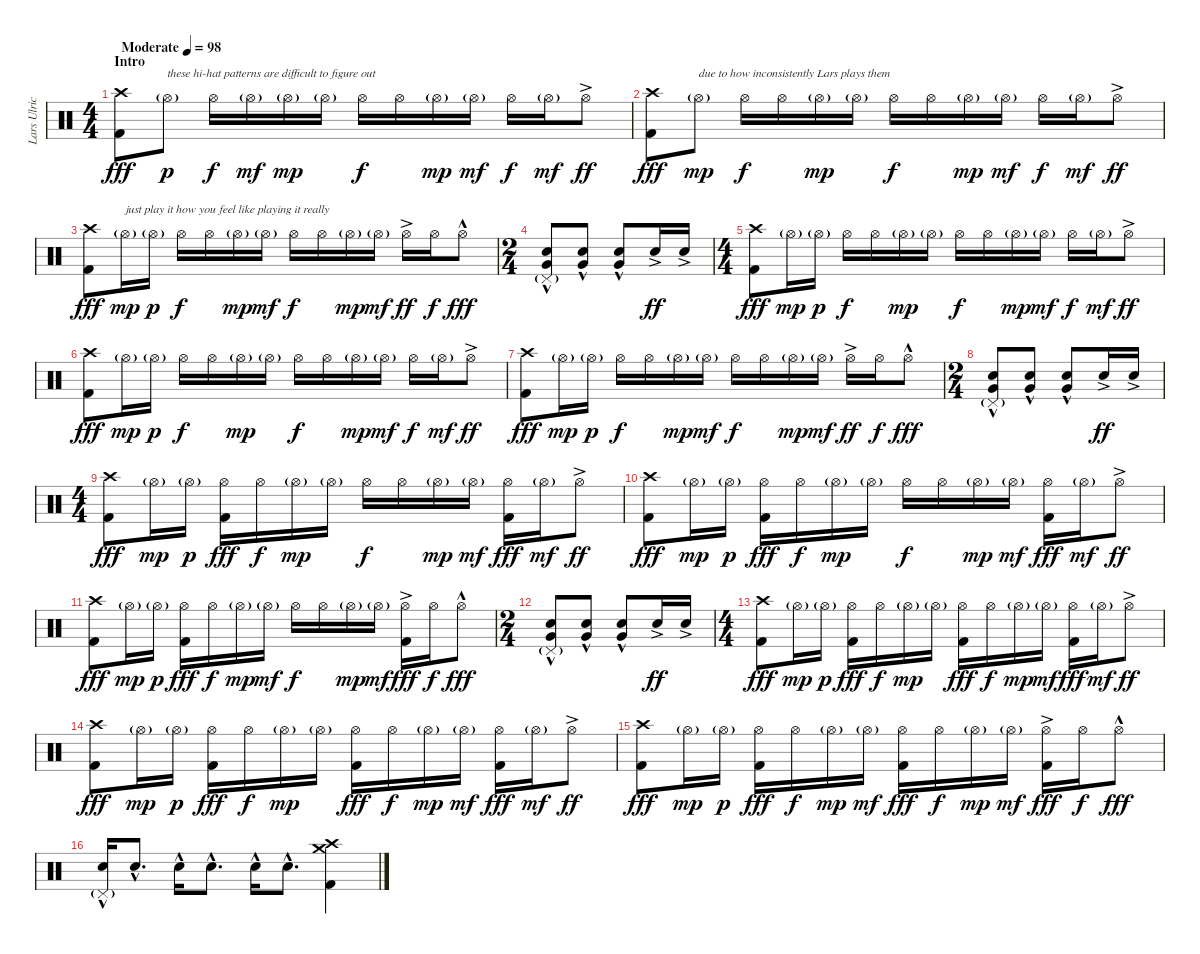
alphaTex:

\track ("Lars Ulrich (Drums)" "Lars Ulric") {instrument percussion}
\staff {score}
\articulation defaults
\ts (4 4)
\section ("" "Intro")
\tempo (98 "Moderate")
\clef neutral
\ks c
("Crash high (hit)" "Kick (hit) 2").8{dy fff} "Hi-Hat (open)"{g}.8{txt "these hi-hat patterns are difficult to figure out" dy p} "Hi-Hat (open)".16{dy f} "Hi-Hat (open)"{g}.16{dy mf} "Hi-Hat (open)"{g}.16{dy mp} "Hi-Hat (open)"{g}.16 "Hi-Hat (open)".16{dy f} "Hi-Hat (open)".16 "Hi-Hat (open)"{g}.16{dy mp} "Hi-Hat (open)"{g}.16{dy mf} "Hi-Hat (open)".16{dy f} "Hi-Hat (open)"{g}.16{dy mf} "Hi-Hat (open)"{ac}.8{dy ff} |
("Crash high (hit)" "Kick (hit) 2").8{dy fff} "Hi-Hat (open)"{g}.8{txt "due to how inconsistently Lars plays them" dy mp} "Hi-Hat (open)".16{dy f} "Hi-Hat (open)".16 "Hi-Hat (open)"{g}.16{dy mp} "Hi-Hat (open)"{g}.16 "Hi-Hat (open)".16{dy f} "Hi-Hat (open)".16 "Hi-Hat (open)"{g}.16{dy mp} "Hi-Hat (open)"{g}.16{dy mf} "Hi-Hat (open)".16{dy f} "Hi-Hat (open)"{g}.16{dy mf} "Hi-Hat (open)"{ac}.8{dy ff} |
("Crash high (hit)" "Kick (hit) 2").8{dy fff} "Hi-Hat (open)"{g}.16{txt "just play it how you feel like playing it really" dy mp} "Hi-Hat (open)"{g}.16{dy p} "Hi-Hat (open)".16{dy f} "Hi-Hat (open)".16 "Hi-Hat (open)"{g}.16{dy mp} "Hi-Hat (open)"{g}.16{dy mf} "Hi-Hat (open)".16{dy f} "Hi-Hat (open)".16 "Hi-Hat (open)"{g}.16{dy mp} "Hi-Hat (open)"{g}.16{dy mf} "Hi-Hat (open)"{ac}.16{dy ff} "Hi-Hat (open)".16{dy f} "Hi-Hat (open)"{hac}.8{dy fff} |
\ts (2 4)
("Pedal Hi-Hat (hit)"{g} "Electric Snare (hit)"{hac} "Very Low Tom (hit)"{hac}).8 ("Electric Snare (hit)"{hac} "Very Low Tom (hit)"{hac}).8 ("Electric Snare (hit)"{hac} "Very Low Tom (hit)"{hac}).8 "Electric Snare (hit)"{ac}.16{dy ff} "Electric Snare (hit)"{ac}.16 |
\ts (4 4)
("Crash high (hit)" "Kick (hit) 2").8{dy fff} "Hi-Hat (open)"{g}.16{dy mp} "Hi-Hat (open)"{g}.16{dy p} "Hi-Hat (open)".16{dy f} "Hi-Hat (open)".16 "Hi-Hat (open)"{g}.16{dy mp} "Hi-Hat (open)"{g}.16 "Hi-Hat (open)".16{dy f} "Hi-Hat (open)".16 "Hi-Hat (open)"{g}.16{dy mp} "Hi-Hat (open)"{g}.16{dy mf} "Hi-Hat (open)".16{dy f} "Hi-Hat (open)"{g}.16{dy mf} "Hi-Hat (open)"{ac}.8{dy ff} |
("Crash high (hit)" "Kick (hit) 2").8{dy fff} "Hi-Hat (open)"{g}.16{dy mp} "Hi-Hat (open)"{g}.16{dy p} "Hi-Hat (open)".16{dy f} "Hi-Hat (open)".16 "Hi-Hat (open)"{g}.16{dy mp} "Hi-Hat (open)"{g}.16 "Hi-Hat (open)".16{dy f} "Hi-Hat (open)".16 "Hi-Hat (open)"{g}.16{dy mp} "Hi-Hat (open)"{g}.16{dy mf} "Hi-Hat (open)".16{dy f} "Hi-Hat (open)"{g}.16{dy mf} "Hi-Hat (open)"{ac}.8{dy ff} |
("Crash high (hit)" "Kick (hit) 2").8{dy fff} "Hi-Hat (open)"{g}.16{dy mp} "Hi-Hat (open)"{g}.16{dy p} "Hi-Hat (open)".16{dy f} "Hi-Hat (open)".16 "Hi-Hat (open)"{g}.16{dy mp} "Hi-Hat (open)"{g}.16{dy mf} "Hi-Hat (open)".16{dy f} "Hi-Hat (open)".16 "Hi-Hat (open)"{g}.16{dy mp} "Hi-Hat (open)"{g}.16{dy mf} "Hi-Hat (open)"{ac}.16{dy ff} "Hi-Hat (open)".16{dy f} "Hi-Hat (open)"{hac}.8{dy fff} |
\ts (2 4)
("Pedal Hi-Hat (hit)"{g} "Electric Snare (hit)"{hac} "Very Low Tom (hit)"{hac}).8 ("Electric Snare (hit)"{hac} "Very Low Tom (hit)"{hac}).8 ("Electric Snare (hit)"{hac} "Very Low Tom (hit)"{hac}).8 "Electric Snare (hit)"{ac}.16{dy ff} "Electric Snare (hit)"{ac}.16 |
\ts (4 4)
("Crash high (hit)" "Kick (hit) 2").8{dy fff} "Hi-Hat (open)"{g}.16{dy mp} "Hi-Hat (open)"{g}.16{dy p} ("Hi-Hat (open)" "Kick (hit) 2").16{dy fff} "Hi-Hat (open)".16{dy f} "Hi-Hat (open)"{g}.16{dy mp} "Hi-Hat (open)"{g}.16 "Hi-Hat (open)".16{dy f} "Hi-Hat (open)".16 "Hi-Hat (open)"{g}.16{dy mp} "Hi-Hat (open)"{g}.16{dy mf} ("Hi-Hat (open)" "Kick (hit) 2").16{dy fff} "Hi-Hat (open)"{g}.16{dy mf} "Hi-Hat (open)"{ac}.8{dy ff} |
("Crash high (hit)" "Kick (hit) 2").8{dy fff} "Hi-Hat (open)"{g}.16{dy mp} "Hi-Hat (open)"{g}.16{dy p} ("Hi-Hat (open)" "Kick (hit) 2").16{dy fff} "Hi-Hat (open)".16{dy f} "Hi-Hat (open)"{g}.16{dy mp} "Hi-Hat (open)"{g}.16 "Hi-Hat (open)".16{dy f} "Hi-Hat (open)".16 "Hi-Hat (open)"{g}.16{dy mp} "Hi-Hat (open)"{g}.16{dy mf} ("Hi-Hat (open)" "Kick (hit) 2").16{dy fff} "Hi-Hat (open)"{g}.16{dy mf} "Hi-Hat (open)"{ac}.8{dy ff} |
("Crash high (hit)" "Kick (hit) 2").8{dy fff} "Hi-Hat (open)"{g}.16{dy mp} "Hi-Hat (open)"{g}.16{dy p} ("Hi-Hat (open)" "Kick (hit) 2").16{dy fff} "Hi-Hat (open)".16{dy f} "Hi-Hat (open)"{g}.16{dy mp} "Hi-Hat (open)"{g}.16{dy mf} "Hi-Hat (open)".16{dy f} "Hi-Hat (open)".16 "Hi-Hat (open)"{g}.16{dy mp} "Hi-Hat (open)"{g}.16{dy mf} ("Hi-Hat (open)"{ac} "Kick (hit) 2").16{dy fff} "Hi-Hat (open)".16{dy f} "Hi-Hat (open)"{hac}.8{dy fff} |
\ts (2 4)
("Pedal Hi-Hat (hit)"{g} "Electric Snare (hit)"{hac} "Very Low Tom (hit)"{hac}).8 ("Electric Snare (hit)"{hac} "Very Low Tom (hit)"{hac}).8 ("Electric Snare (hit)"{hac} "Very Low Tom (hit)"{hac}).8 "Electric Snare (hit)"{ac}.16{dy ff} "Electric Snare (hit)"{ac}.16 |
\ts (4 4)
("Crash high (hit)" "Kick (hit) 2").8{dy fff} "Hi-Hat (open)"{g}.16{dy mp} "Hi-Hat (open)"{g}.16{dy p} ("Hi-Hat (open)" "Kick (hit) 2").16{dy fff} "Hi-Hat (open)".16{dy f} "Hi-Hat (open)"{g}.16{dy mp} "Hi-Hat (open)"{g}.16 ("Hi-Hat (open)" "Kick (hit) 2").16{dy fff} "Hi-Hat (open)".16{dy f} "Hi-Hat (open)"{g}.16{dy mp} "Hi-Hat (open)"{g}.16{dy mf} ("Hi-Hat (open)" "Kick (hit) 2").16{dy fff} "Hi-Hat (open)"{g}.16{dy mf} "Hi-Hat (open)"{ac}.8{dy ff} |
("Crash high (hit)" "Kick (hit) 2").8{dy fff} "Hi-Hat (open)"{g}.16{dy mp} "Hi-Hat (open)"{g}.16{dy p} ("Hi-Hat (open)" "Kick (hit) 2").16{dy fff} "Hi-Hat (open)".16{dy f} "Hi-Hat (open)"{g}.16{dy mp} "Hi-Hat (open)"{g}.16 ("Hi-Hat (open)" "Kick (hit) 2").16{dy fff} "Hi-Hat (open)".16{dy f} "Hi-Hat (open)"{g}.16{dy mp} "Hi-Hat (open)"{g}.16{dy mf} ("Hi-Hat (open)" "Kick (hit) 2").16{dy fff} "Hi-Hat (open)"{g}.16{dy mf} "Hi-Hat (open)"{ac}.8{dy ff} |
("Crash high (hit)" "Kick (hit) 2").8{dy fff} "Hi-Hat (open)"{g}.16{dy mp} "Hi-Hat (open)"{g}.16{dy p} ("Hi-Hat (open)" "Kick (hit) 2").16{dy fff} "Hi-Hat (open)".16{dy f} "Hi-Hat (open)"{g}.16{dy mp} "Hi-Hat (open)"{g}.16{dy mf} ("Hi-Hat (open)" "Kick (hit) 2").16{dy fff} "Hi-Hat (open)".16{dy f} "Hi-Hat (open)"{g}.16{dy mp} "Hi-Hat (open)"{g}.16{dy mf} ("Hi-Hat (open)"{ac} "Kick (hit) 2").16{dy fff} "Hi-Hat (open)".16{dy f} "Hi-Hat (open)"{hac}.8{dy fff} |
("Pedal Hi-Hat (hit)"{g} "Electric Snare (hit)"{hac}).16 "Electric Snare (hit)"{hac}.8{d} "Electric Snare (hit)"{hac}.16 "Electric Snare (hit)"{hac}.8{d} "Electric Snare (hit)"{hac}.16 "Electric Snare (hit)"{hac}.8{d} ("Crash medium (hit)" "Crash high (hit)" "Kick (hit) 2").4
